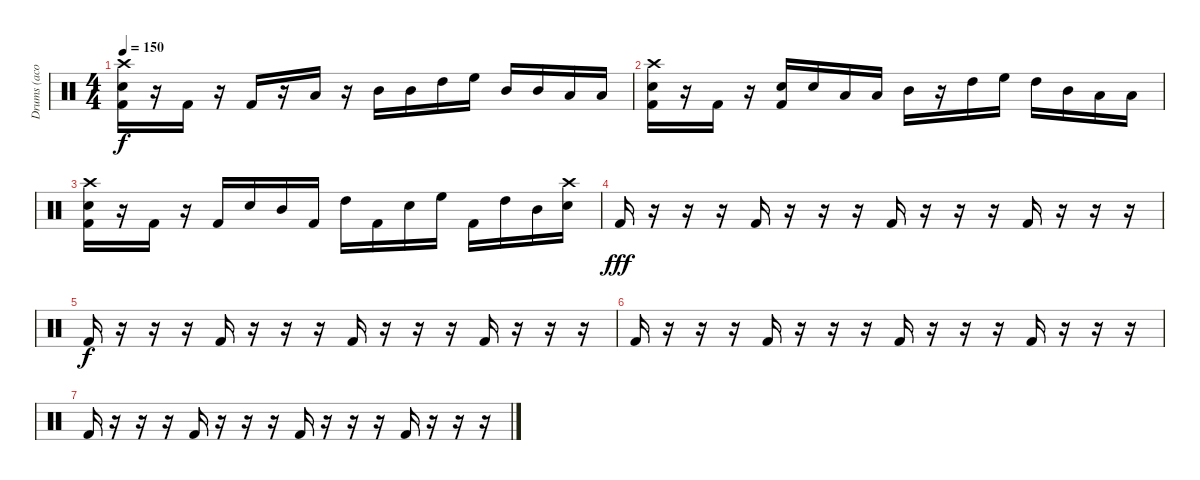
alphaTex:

\track ("Drums (acoustic drumset)" "Drums (aco") {instrument percussion}
\staff {score}
\articulation defaults
\ts (4 4)
\tempo 150
\clef neutral
\ks c
("Crash high (hit)" "Electric Snare (hit)" "Kick (hit) 2").16{dy f} r.16 "Kick (hit) 2".16 r.16 "Kick (hit) 2".16 r.16 "Low Floor Tom (hit)".16 r.16 "Mid Tom (hit)".16 "Mid Tom (hit)".16 "High Tom (hit)".16 "High Floor Tom (hit)".16 "Mid Tom (hit)".16 "Mid Tom (hit)".16 "Low Tom (hit)".16 "Low Tom (hit)".16 |
("Crash high (hit)" "Electric Snare (hit)" "Kick (hit) 2").16 r.16 "Kick (hit) 2".16 r.16 ("Electric Snare (hit)" "Kick (hit) 2").16 "Electric Snare (hit)".16 "Low Floor Tom (hit)".16 "Low Floor Tom (hit)".16 "Mid Tom (hit)".16 r.16 "High Tom (hit)".16 "High Floor Tom (hit)".16 "High Tom (hit)".16 "Mid Tom (hit)".16 "Low Tom (hit)".16 "Low Tom (hit)".16 |
("Crash high (hit)" "Electric Snare (hit)" "Kick (hit) 2").16 r.16 "Kick (hit) 2".16 r.16 "Kick (hit) 2".16 "Electric Snare (hit)".16 "Mid Tom (hit)".16 "Kick (hit) 2".16 "High Tom (hit)".16 "Kick (hit) 2".16 "Electric Snare (hit)".16 "High Floor Tom (hit)".16 "Kick (hit) 2".16 "High Tom (hit)".16 "Mid Tom (hit)".16 ("Crash high (hit)" "Electric Snare (hit)").16 |
"Kick (hit) 2".16{dy fff volume 0} r.16 r.16 r.16 "Kick (hit) 2".16 r.16 r.16 r.16 "Kick (hit) 2".16 r.16 r.16 r.16 "Kick (hit) 2".16 r.16 r.16 r.16 |
"Kick (hit) 2".16{dy f} r.16 r.16 r.16 "Kick (hit) 2".16 r.16 r.16 r.16 "Kick (hit) 2".16 r.16 r.16 r.16 "Kick (hit) 2".16 r.16 r.16 r.16 |
"Kick (hit) 2".16 r.16 r.16 r.16 "Kick (hit) 2".16 r.16 r.16 r.16 "Kick (hit) 2".16 r.16 r.16 r.16 "Kick (hit) 2".16 r.16 r.16 r.16 |
"Kick (hit) 2".16 r.16 r.16 r.16 "Kick (hit) 2".16 r.16 r.16 r.16 "Kick (hit) 2".16 r.16 r.16 r.16 "Kick (hit) 2".16 r.16 r.16 r.16
